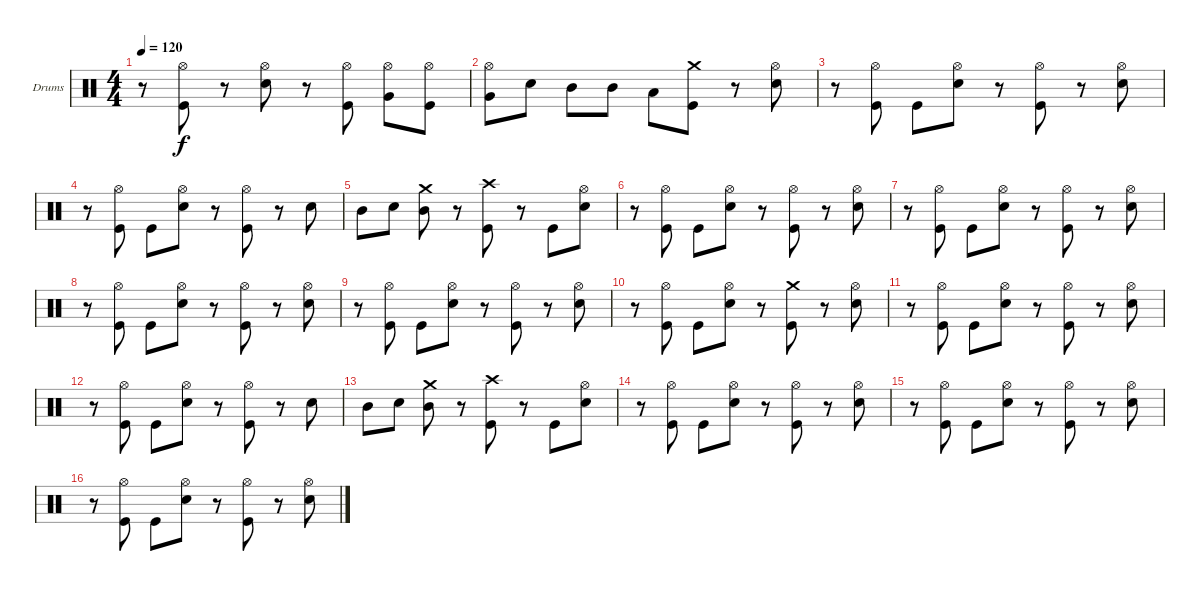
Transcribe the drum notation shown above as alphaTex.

\defaultSystemsLayout 4
\bracketExtendMode groupsimilarinstruments
\firstSystemTrackNameOrientation horizontal
\otherSystemsTrackNameOrientation horizontal
\track ("Drumkit" "Drums") {instrument percussion}
\staff {score}
\articulation defaults
\ts (4 4)
\tempo 120
\clef neutral
\ks c
r.8{dy f} ("Kick (hit)" "Hi-Hat (open)").8 r.8 ("Snare (hit) 2" "Hi-Hat (open)").8 r.8 ("Kick (hit)" "Hi-Hat (open)").8 ("Very Low Tom (hit)" "Hi-Hat (open)").8 ("Kick (hit)" "Hi-Hat (open)").8 |
("Very Low Tom (hit)" "Hi-Hat (open)").8 "Snare (hit) 2".8 "Mid Tom (hit)".8 "Mid Tom (hit)".8 "Low Tom (hit)".8 ("Kick (hit)" "Crash medium (hit)").8 r.8 ("Snare (hit) 2" "Hi-Hat (open)").8 |
r.8 ("Kick (hit)" "Hi-Hat (open)").8 "Kick (hit)".8 ("Snare (hit) 2" "Hi-Hat (open)").8 r.8 ("Kick (hit)" "Hi-Hat (open)").8 r.8 ("Snare (hit) 2" "Hi-Hat (open)").8 |
r.8 ("Kick (hit)" "Hi-Hat (open)").8 "Kick (hit)".8 ("Snare (hit) 2" "Hi-Hat (open)").8 r.8 ("Kick (hit)" "Hi-Hat (open)").8 r.8 "Snare (hit) 2".8 |
"Mid Tom (hit)".8 "Snare (hit) 2".8 ("Mid Tom (hit)" "Crash medium (hit)").8 r.8 ("Kick (hit)" "Crash high (hit)").8 r.8 "Kick (hit)".8 ("Snare (hit) 2" "Hi-Hat (open)").8 |
r.8 ("Kick (hit)" "Hi-Hat (open)").8 "Kick (hit)".8 ("Snare (hit) 2" "Hi-Hat (open)").8 r.8 ("Kick (hit)" "Hi-Hat (open)").8 r.8 ("Snare (hit) 2" "Hi-Hat (open)").8 |
r.8 ("Kick (hit)" "Hi-Hat (open)").8 "Kick (hit)".8 ("Snare (hit) 2" "Hi-Hat (open)").8 r.8 ("Kick (hit)" "Hi-Hat (open)").8 r.8 ("Snare (hit) 2" "Hi-Hat (open)").8 |
r.8 ("Kick (hit)" "Hi-Hat (open)").8 "Kick (hit)".8 ("Snare (hit) 2" "Hi-Hat (open)").8 r.8 ("Kick (hit)" "Hi-Hat (open)").8 r.8 ("Snare (hit) 2" "Hi-Hat (open)").8 |
r.8 ("Kick (hit)" "Hi-Hat (open)").8 "Kick (hit)".8 ("Snare (hit) 2" "Hi-Hat (open)").8 r.8 ("Kick (hit)" "Hi-Hat (open)").8 r.8 ("Snare (hit) 2" "Hi-Hat (open)").8 |
r.8 ("Kick (hit)" "Hi-Hat (open)").8 "Kick (hit)".8 ("Snare (hit) 2" "Hi-Hat (open)").8 r.8 ("Kick (hit)" "Crash medium (hit)").8 r.8 ("Snare (hit) 2" "Hi-Hat (open)").8 |
r.8 ("Kick (hit)" "Hi-Hat (open)").8 "Kick (hit)".8 ("Snare (hit) 2" "Hi-Hat (open)").8 r.8 ("Kick (hit)" "Hi-Hat (open)").8 r.8 ("Snare (hit) 2" "Hi-Hat (open)").8 |
r.8 ("Kick (hit)" "Hi-Hat (open)").8 "Kick (hit)".8 ("Snare (hit) 2" "Hi-Hat (open)").8 r.8 ("Kick (hit)" "Hi-Hat (open)").8 r.8 "Snare (hit) 2".8 |
"Mid Tom (hit)".8 "Snare (hit) 2".8 ("Mid Tom (hit)" "Crash medium (hit)").8 r.8 ("Kick (hit)" "Crash high (hit)").8 r.8 "Kick (hit)".8 ("Snare (hit) 2" "Hi-Hat (open)").8 |
r.8 ("Kick (hit)" "Hi-Hat (open)").8 "Kick (hit)".8 ("Snare (hit) 2" "Hi-Hat (open)").8 r.8 ("Kick (hit)" "Hi-Hat (open)").8 r.8 ("Snare (hit) 2" "Hi-Hat (open)").8 |
r.8 ("Kick (hit)" "Hi-Hat (open)").8 "Kick (hit)".8 ("Snare (hit) 2" "Hi-Hat (open)").8 r.8 ("Kick (hit)" "Hi-Hat (open)").8 r.8 ("Snare (hit) 2" "Hi-Hat (open)").8 |
r.8 ("Kick (hit)" "Hi-Hat (open)").8 "Kick (hit)".8 ("Snare (hit) 2" "Hi-Hat (open)").8 r.8 ("Kick (hit)" "Hi-Hat (open)").8 r.8 ("Snare (hit) 2" "Hi-Hat (open)").8
